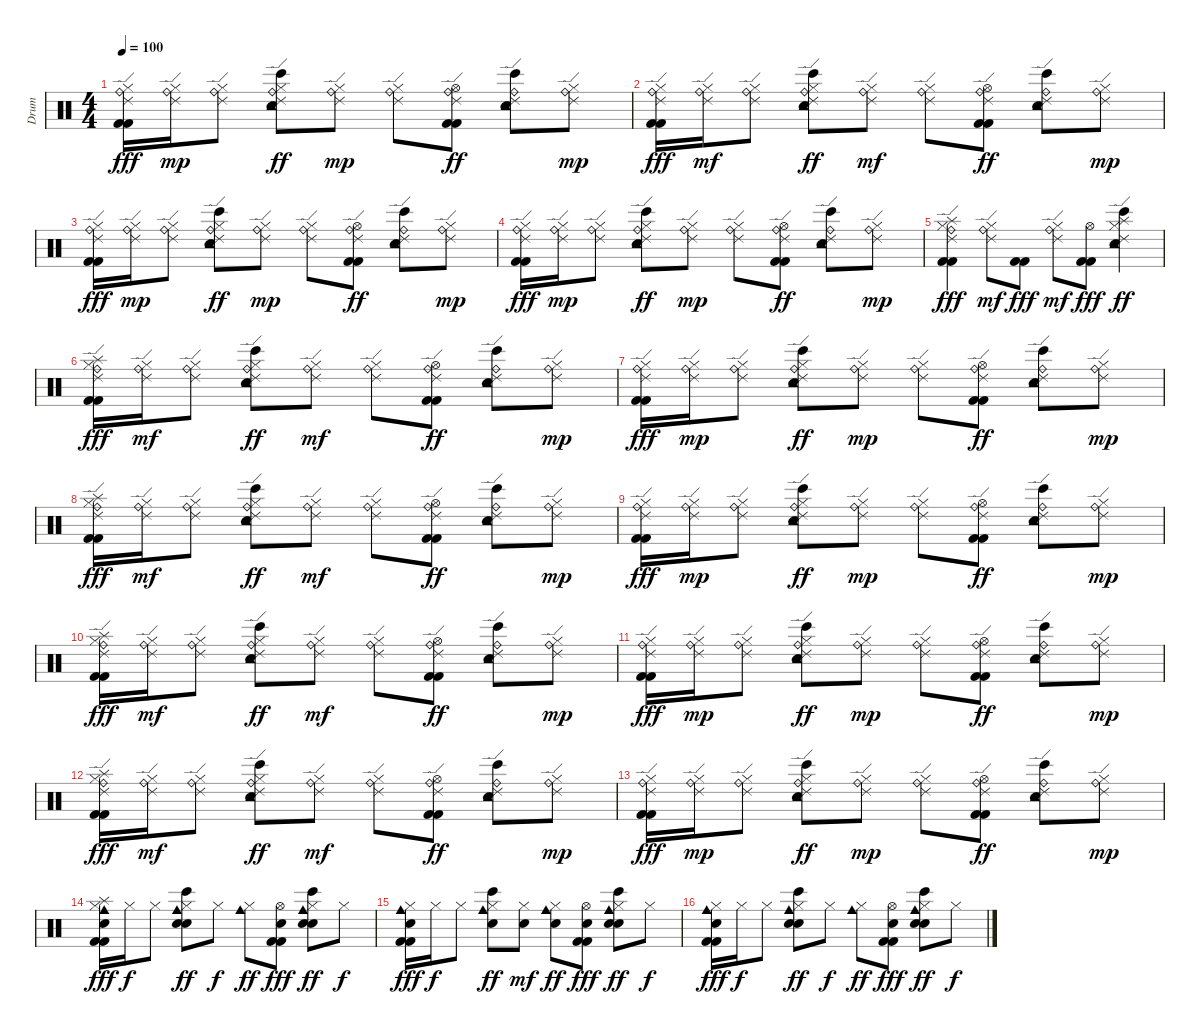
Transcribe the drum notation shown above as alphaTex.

\track ("Drum" "Drum") {instrument percussion}
\staff {score}
\articulation defaults
\ts (4 4)
\tempo 100
\clef neutral
\ks c
("Ride (bell)" "Ride (edge) 2" "Hi-Hat (closed)" "Kick (hit) 2" "Kick (hit) 2").16{dy fff} ("Ride (bell)" "Ride (edge) 2" "Hi-Hat (closed)").16{dy mp} ("Ride (bell)" "Ride (edge) 2" "Hi-Hat (closed)").8 ("Snare (hit) 2" "Ride (bell)" "Ride (edge) 2" "Hi-Hat (closed)" "Bongo High (hit)" "Tambourine (hit)").8{dy ff} ("Ride (bell)" "Ride (edge) 2" "Hi-Hat (closed)").8{dy mp} ("Ride (bell)" "Ride (edge) 2" "Hi-Hat (closed)").8 ("Ride (bell)" "Ride (edge) 2" "Hi-Hat (open)" "Kick (hit) 2" "Kick (hit) 2").8{dy ff} ("Snare (hit) 2" "Ride (bell)" "Ride (edge) 2" "Bongo High (hit)" "Tambourine (hit)").8 ("Ride (bell)" "Ride (edge) 2" "Hi-Hat (closed)").8{dy mp} |
("Ride (bell)" "Ride (edge) 2" "Hi-Hat (closed)" "Kick (hit) 2" "Kick (hit) 2").16{dy fff} ("Ride (bell)" "Ride (edge) 2" "Hi-Hat (closed)").16{dy mf} ("Ride (bell)" "Ride (edge) 2" "Hi-Hat (closed)").8 ("Snare (hit) 2" "Ride (bell)" "Ride (edge) 2" "Hi-Hat (closed)" "Bongo High (hit)" "Tambourine (hit)").8{dy ff} ("Ride (bell)" "Ride (edge) 2" "Hi-Hat (closed)").8{dy mf} ("Ride (bell)" "Ride (edge) 2" "Hi-Hat (closed)").8 ("Ride (bell)" "Ride (edge) 2" "Hi-Hat (open)" "Kick (hit) 2" "Kick (hit) 2").8{dy ff} ("Snare (hit) 2" "Ride (bell)" "Ride (edge) 2" "Bongo High (hit)" "Tambourine (hit)").8 ("Ride (bell)" "Ride (edge) 2" "Hi-Hat (closed)").8{dy mp} |
("Ride (bell)" "Ride (edge) 2" "Hi-Hat (closed)" "Kick (hit) 2" "Kick (hit) 2").16{dy fff} ("Ride (bell)" "Ride (edge) 2" "Hi-Hat (closed)").16{dy mp} ("Ride (bell)" "Ride (edge) 2" "Hi-Hat (closed)").8 ("Snare (hit) 2" "Ride (bell)" "Ride (edge) 2" "Hi-Hat (closed)" "Bongo High (hit)" "Tambourine (hit)").8{dy ff} ("Ride (bell)" "Ride (edge) 2" "Hi-Hat (closed)").8{dy mp} ("Ride (bell)" "Ride (edge) 2" "Hi-Hat (closed)").8 ("Ride (bell)" "Ride (edge) 2" "Hi-Hat (open)" "Kick (hit) 2" "Kick (hit) 2").8{dy ff} ("Snare (hit) 2" "Ride (bell)" "Ride (edge) 2" "Bongo High (hit)" "Tambourine (hit)").8 ("Ride (bell)" "Ride (edge) 2" "Hi-Hat (closed)").8{dy mp} |
("Ride (bell)" "Ride (edge) 2" "Hi-Hat (closed)" "Kick (hit) 2" "Kick (hit) 2").16{dy fff} ("Ride (bell)" "Ride (edge) 2" "Hi-Hat (closed)").16{dy mp} ("Ride (bell)" "Ride (edge) 2" "Hi-Hat (closed)").8 ("Snare (hit) 2" "Ride (bell)" "Ride (edge) 2" "Hi-Hat (closed)" "Bongo High (hit)" "Tambourine (hit)").8{dy ff} ("Ride (bell)" "Ride (edge) 2" "Hi-Hat (closed)").8{dy mp} ("Ride (bell)" "Ride (edge) 2" "Hi-Hat (closed)").8 ("Ride (bell)" "Ride (edge) 2" "Hi-Hat (open)" "Kick (hit) 2" "Kick (hit) 2").8{dy ff} ("Snare (hit) 2" "Ride (bell)" "Ride (edge) 2" "Bongo High (hit)" "Tambourine (hit)").8 ("Ride (bell)" "Ride (edge) 2" "Hi-Hat (closed)").8{dy mp} |
("Splash (hit)" "Ride (bell)" "Ride (edge) 2" "Hi-Hat (closed)" "Kick (hit) 2" "Kick (hit) 2").4{dy fff} ("Ride (bell)" "Ride (edge) 2" "Hi-Hat (closed)").8{dy mf} ("Kick (hit) 2" "Kick (hit) 2").8{dy fff} ("Ride (bell)" "Ride (edge) 2" "Hi-Hat (closed)").8{dy mf} ("Hi-Hat (open)" "Kick (hit) 2" "Kick (hit) 2").8{dy fff} ("Splash (hit)" "Snare (hit) 2" "Ride (edge) 2" "Hi-Hat (closed)" "Bongo High (hit)" "Tambourine (hit)").4{dy ff} |
("Splash (hit)" "Ride (bell)" "Ride (edge) 2" "Hi-Hat (closed)" "Kick (hit) 2" "Kick (hit) 2").16{dy fff volume 12} ("Ride (bell)" "Ride (edge) 2" "Hi-Hat (closed)").16{dy mf} ("Ride (bell)" "Ride (edge) 2" "Hi-Hat (closed)").8 ("Snare (hit) 2" "Ride (bell)" "Ride (edge) 2" "Hi-Hat (closed)" "Bongo High (hit)" "Tambourine (hit)").8{dy ff} ("Ride (bell)" "Ride (edge) 2" "Hi-Hat (closed)").8{dy mf} ("Ride (bell)" "Ride (edge) 2" "Hi-Hat (closed)").8 ("Ride (bell)" "Ride (edge) 2" "Hi-Hat (open)" "Kick (hit) 2" "Kick (hit) 2").8{dy ff} ("Snare (hit) 2" "Ride (bell)" "Ride (edge) 2" "Bongo High (hit)" "Tambourine (hit)").8 ("Ride (bell)" "Ride (edge) 2" "Hi-Hat (closed)").8{dy mp} |
("Ride (bell)" "Ride (edge) 2" "Hi-Hat (closed)" "Kick (hit) 2" "Kick (hit) 2").16{dy fff} ("Ride (bell)" "Ride (edge) 2" "Hi-Hat (closed)").16{dy mp} ("Ride (bell)" "Ride (edge) 2" "Hi-Hat (closed)").8 ("Snare (hit) 2" "Ride (bell)" "Ride (edge) 2" "Hi-Hat (closed)" "Bongo High (hit)" "Tambourine (hit)").8{dy ff} ("Ride (bell)" "Ride (edge) 2" "Hi-Hat (closed)").8{dy mp} ("Ride (bell)" "Ride (edge) 2" "Hi-Hat (closed)").8 ("Ride (bell)" "Ride (edge) 2" "Hi-Hat (open)" "Kick (hit) 2" "Kick (hit) 2").8{dy ff} ("Snare (hit) 2" "Ride (bell)" "Ride (edge) 2" "Bongo High (hit)" "Tambourine (hit)").8 ("Ride (bell)" "Ride (edge) 2" "Hi-Hat (closed)").8{dy mp} |
("Splash (hit)" "Ride (bell)" "Ride (edge) 2" "Hi-Hat (closed)" "Kick (hit) 2" "Kick (hit) 2").16{dy fff} ("Ride (bell)" "Ride (edge) 2" "Hi-Hat (closed)").16{dy mf} ("Ride (bell)" "Ride (edge) 2" "Hi-Hat (closed)").8 ("Snare (hit) 2" "Ride (bell)" "Ride (edge) 2" "Hi-Hat (closed)" "Bongo High (hit)" "Tambourine (hit)").8{dy ff} ("Ride (bell)" "Ride (edge) 2" "Hi-Hat (closed)").8{dy mf} ("Ride (bell)" "Ride (edge) 2" "Hi-Hat (closed)").8 ("Ride (bell)" "Ride (edge) 2" "Hi-Hat (open)" "Kick (hit) 2" "Kick (hit) 2").8{dy ff} ("Snare (hit) 2" "Ride (bell)" "Ride (edge) 2" "Bongo High (hit)" "Tambourine (hit)").8 ("Ride (bell)" "Ride (edge) 2" "Hi-Hat (closed)").8{dy mp} |
("Ride (bell)" "Ride (edge) 2" "Hi-Hat (closed)" "Kick (hit) 2" "Kick (hit) 2").16{dy fff} ("Ride (bell)" "Ride (edge) 2" "Hi-Hat (closed)").16{dy mp} ("Ride (bell)" "Ride (edge) 2" "Hi-Hat (closed)").8 ("Snare (hit) 2" "Ride (bell)" "Ride (edge) 2" "Hi-Hat (closed)" "Bongo High (hit)" "Tambourine (hit)").8{dy ff} ("Ride (bell)" "Ride (edge) 2" "Hi-Hat (closed)").8{dy mp} ("Ride (bell)" "Ride (edge) 2" "Hi-Hat (closed)").8 ("Ride (bell)" "Ride (edge) 2" "Hi-Hat (open)" "Kick (hit) 2" "Kick (hit) 2").8{dy ff} ("Snare (hit) 2" "Ride (bell)" "Ride (edge) 2" "Bongo High (hit)" "Tambourine (hit)").8 ("Ride (bell)" "Ride (edge) 2" "Hi-Hat (closed)").8{dy mp} |
("Splash (hit)" "Ride (bell)" "Ride (edge) 2" "Hi-Hat (closed)" "Kick (hit) 2" "Kick (hit) 2").16{dy fff} ("Ride (bell)" "Ride (edge) 2" "Hi-Hat (closed)").16{dy mf} ("Ride (bell)" "Ride (edge) 2" "Hi-Hat (closed)").8 ("Snare (hit) 2" "Ride (bell)" "Ride (edge) 2" "Hi-Hat (closed)" "Bongo High (hit)" "Tambourine (hit)").8{dy ff} ("Ride (bell)" "Ride (edge) 2" "Hi-Hat (closed)").8{dy mf} ("Ride (bell)" "Ride (edge) 2" "Hi-Hat (closed)").8 ("Ride (bell)" "Ride (edge) 2" "Hi-Hat (open)" "Kick (hit) 2" "Kick (hit) 2").8{dy ff} ("Snare (hit) 2" "Ride (bell)" "Ride (edge) 2" "Bongo High (hit)" "Tambourine (hit)").8 ("Ride (bell)" "Ride (edge) 2" "Hi-Hat (closed)").8{dy mp} |
("Ride (bell)" "Ride (edge) 2" "Hi-Hat (closed)" "Kick (hit) 2" "Kick (hit) 2").16{dy fff} ("Ride (bell)" "Ride (edge) 2" "Hi-Hat (closed)").16{dy mp} ("Ride (bell)" "Ride (edge) 2" "Hi-Hat (closed)").8 ("Snare (hit) 2" "Ride (bell)" "Ride (edge) 2" "Hi-Hat (closed)" "Bongo High (hit)" "Tambourine (hit)").8{dy ff} ("Ride (bell)" "Ride (edge) 2" "Hi-Hat (closed)").8{dy mp} ("Ride (bell)" "Ride (edge) 2" "Hi-Hat (closed)").8 ("Ride (bell)" "Ride (edge) 2" "Hi-Hat (open)" "Kick (hit) 2" "Kick (hit) 2").8{dy ff} ("Snare (hit) 2" "Ride (bell)" "Ride (edge) 2" "Bongo High (hit)" "Tambourine (hit)").8 ("Ride (bell)" "Ride (edge) 2" "Hi-Hat (closed)").8{dy mp} |
("Splash (hit)" "Ride (bell)" "Ride (edge) 2" "Hi-Hat (closed)" "Kick (hit) 2" "Kick (hit) 2").16{dy fff} ("Ride (bell)" "Ride (edge) 2" "Hi-Hat (closed)").16{dy mf} ("Ride (bell)" "Ride (edge) 2" "Hi-Hat (closed)").8 ("Snare (hit) 2" "Ride (bell)" "Ride (edge) 2" "Hi-Hat (closed)" "Bongo High (hit)" "Tambourine (hit)").8{dy ff} ("Ride (bell)" "Ride (edge) 2" "Hi-Hat (closed)").8{dy mf} ("Ride (bell)" "Ride (edge) 2" "Hi-Hat (closed)").8 ("Ride (bell)" "Ride (edge) 2" "Hi-Hat (open)" "Kick (hit) 2" "Kick (hit) 2").8{dy ff} ("Snare (hit) 2" "Ride (bell)" "Ride (edge) 2" "Bongo High (hit)" "Tambourine (hit)").8 ("Ride (bell)" "Ride (edge) 2" "Hi-Hat (closed)").8{dy mp} |
("Ride (bell)" "Ride (edge) 2" "Hi-Hat (closed)" "Kick (hit) 2" "Kick (hit) 2").16{dy fff} ("Ride (bell)" "Ride (edge) 2" "Hi-Hat (closed)").16{dy mp} ("Ride (bell)" "Ride (edge) 2" "Hi-Hat (closed)").8 ("Snare (hit) 2" "Ride (bell)" "Ride (edge) 2" "Hi-Hat (closed)" "Bongo High (hit)" "Tambourine (hit)").8{dy ff} ("Ride (bell)" "Ride (edge) 2" "Hi-Hat (closed)").8{dy mp} ("Ride (bell)" "Ride (edge) 2" "Hi-Hat (closed)").8 ("Ride (bell)" "Ride (edge) 2" "Hi-Hat (open)" "Kick (hit) 2" "Kick (hit) 2").8{dy ff} ("Snare (hit) 2" "Ride (bell)" "Ride (edge) 2" "Bongo High (hit)" "Tambourine (hit)").8 ("Ride (bell)" "Ride (edge) 2" "Hi-Hat (closed)").8{dy mp} |
("Splash (hit)" "Hand Clap (hit)" "Hi-Hat (closed)" "Cowbell medium (hit)" "Kick (hit) 2" "Kick (hit) 2").16{dy fff volume 10} "Hi-Hat (closed)".16{dy f} "Hi-Hat (closed)".8 ("Snare (hit) 2" "Hand Clap (hit)" "Hi-Hat (closed)" "Cowbell medium (hit)" "Bongo High (hit)").8{dy ff} "Hi-Hat (closed)".8{dy f} ("Hi-Hat (closed)" "Cowbell medium (hit)").8{dy ff} ("Hand Clap (hit)" "Hi-Hat (open)" "Kick (hit) 2" "Kick (hit) 2").8{dy fff} ("Snare (hit) 2" "Hand Clap (hit)" "Hi-Hat (closed)" "Cowbell medium (hit)" "Bongo High (hit)").8{dy ff} "Hi-Hat (closed)".8{dy f} |
("Hand Clap (hit)" "Hi-Hat (closed)" "Cowbell medium (hit)" "Kick (hit) 2" "Kick (hit) 2").16{dy fff} "Hi-Hat (closed)".16{dy f} "Hi-Hat (closed)".8 ("Snare (hit) 2" "Hi-Hat (closed)" "Cowbell medium (hit)" "Bongo High (hit)").8{dy ff} ("Hand Clap (hit)" "Hi-Hat (closed)").8{dy mf} ("Hand Clap (hit)" "Hi-Hat (closed)" "Cowbell medium (hit)").8{dy ff} ("Hand Clap (hit)" "Hi-Hat (open)" "Kick (hit) 2" "Kick (hit) 2").8{dy fff} ("Snare (hit) 2" "Hand Clap (hit)" "Hi-Hat (closed)" "Cowbell medium (hit)" "Bongo High (hit)").8{dy ff} "Hi-Hat (closed)".8{dy f} |
("Hand Clap (hit)" "Hi-Hat (closed)" "Cowbell medium (hit)" "Kick (hit) 2" "Kick (hit) 2").16{dy fff} "Hi-Hat (closed)".16{dy f} "Hi-Hat (closed)".8 ("Snare (hit) 2" "Hand Clap (hit)" "Hi-Hat (closed)" "Cowbell medium (hit)" "Bongo High (hit)").8{dy ff} "Hi-Hat (closed)".8{dy f} ("Hi-Hat (closed)" "Cowbell medium (hit)").8{dy ff} ("Hand Clap (hit)" "Hi-Hat (open)" "Kick (hit) 2" "Kick (hit) 2").8{dy fff} ("Snare (hit) 2" "Hand Clap (hit)" "Hi-Hat (closed)" "Cowbell medium (hit)" "Bongo High (hit)").8{dy ff} "Hi-Hat (closed)".8{dy f}
